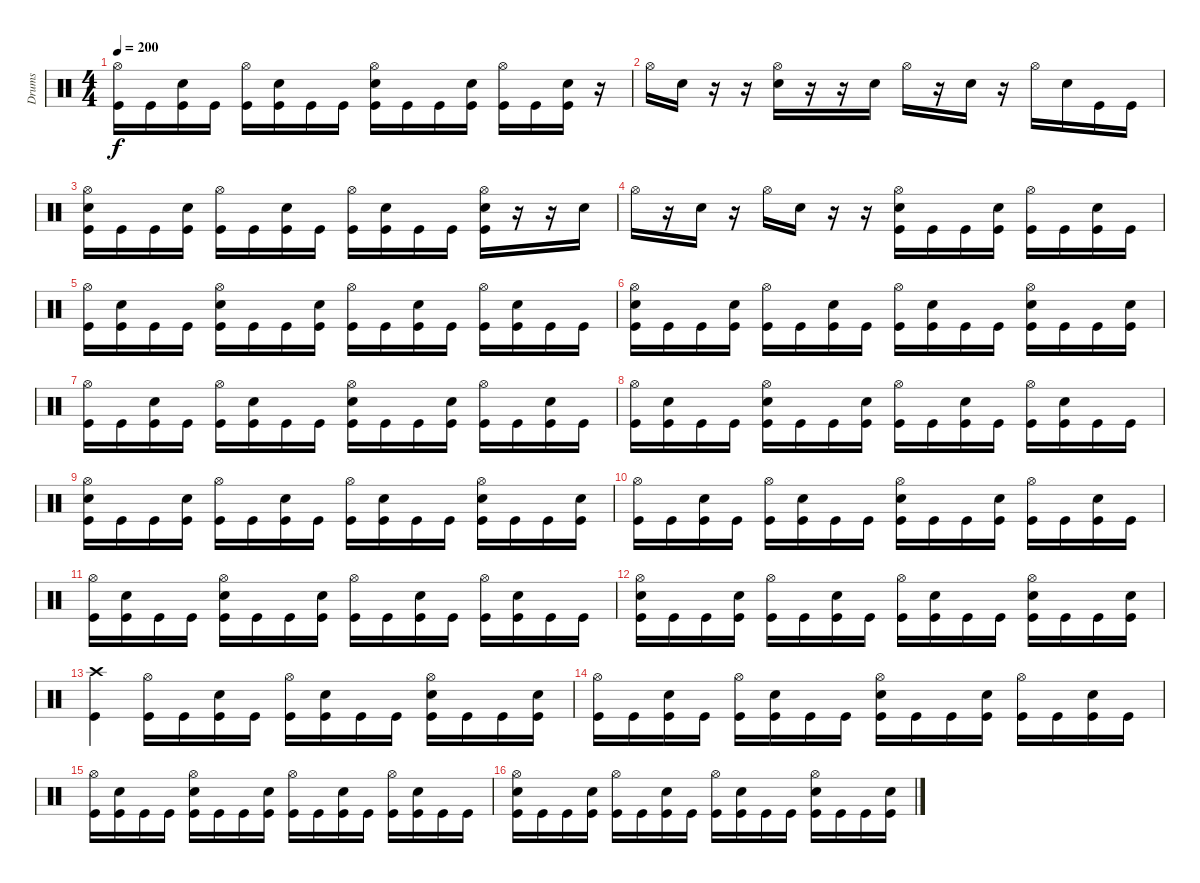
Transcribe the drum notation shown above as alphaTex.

\track ("Drums" "Drums") {instrument percussion}
\staff {score}
\articulation defaults
\ts (4 4)
\tempo 200
\clef neutral
\ks c
("Hi-Hat (open)" "Kick (hit)").16{dy f} "Kick (hit)".16 ("Snare (hit) 2" "Kick (hit)").16 "Kick (hit)".16 ("Hi-Hat (open)" "Kick (hit)").16 ("Snare (hit) 2" "Kick (hit)").16 "Kick (hit)".16 "Kick (hit)".16 ("Hi-Hat (open)" "Snare (hit) 2" "Kick (hit)").16 "Kick (hit)".16 "Kick (hit)".16 ("Snare (hit) 2" "Kick (hit)").16 ("Hi-Hat (open)" "Kick (hit)").16 "Kick (hit)".16 ("Snare (hit) 2" "Kick (hit)").16 r.16 |
"Hi-Hat (open)".16 "Snare (hit) 2".16 r.16 r.16 ("Hi-Hat (open)" "Snare (hit) 2").16 r.16 r.16 "Snare (hit) 2".16 "Hi-Hat (open)".16 r.16 "Snare (hit) 2".16 r.16 "Hi-Hat (open)".16 "Snare (hit) 2".16 "Kick (hit)".16 "Kick (hit)".16 |
("Hi-Hat (open)" "Snare (hit) 2" "Kick (hit)").16 "Kick (hit)".16 "Kick (hit)".16 ("Snare (hit) 2" "Kick (hit)").16 ("Hi-Hat (open)" "Kick (hit)").16 "Kick (hit)".16 ("Snare (hit) 2" "Kick (hit)").16 "Kick (hit)".16 ("Hi-Hat (open)" "Kick (hit)").16 ("Snare (hit) 2" "Kick (hit)").16 "Kick (hit)".16 "Kick (hit)".16 ("Hi-Hat (open)" "Snare (hit) 2" "Kick (hit)").16 r.16 r.16 "Snare (hit) 2".16 |
"Hi-Hat (open)".16 r.16 "Snare (hit) 2".16 r.16 "Hi-Hat (open)".16 "Snare (hit) 2".16 r.16 r.16 ("Hi-Hat (open)" "Snare (hit) 2" "Kick (hit)").16 "Kick (hit)".16 "Kick (hit)".16 ("Snare (hit) 2" "Kick (hit)").16 ("Hi-Hat (open)" "Kick (hit)").16 "Kick (hit)".16 ("Snare (hit) 2" "Kick (hit)").16 "Kick (hit)".16 |
("Hi-Hat (open)" "Kick (hit)").16 ("Snare (hit) 2" "Kick (hit)").16 "Kick (hit)".16 "Kick (hit)".16 ("Hi-Hat (open)" "Snare (hit) 2" "Kick (hit)").16 "Kick (hit)".16 "Kick (hit)".16 ("Snare (hit) 2" "Kick (hit)").16 ("Hi-Hat (open)" "Kick (hit)").16 "Kick (hit)".16 ("Snare (hit) 2" "Kick (hit)").16 "Kick (hit)".16 ("Hi-Hat (open)" "Kick (hit)").16 ("Snare (hit) 2" "Kick (hit)").16 "Kick (hit)".16 "Kick (hit)".16 |
("Hi-Hat (open)" "Snare (hit) 2" "Kick (hit)").16 "Kick (hit)".16 "Kick (hit)".16 ("Snare (hit) 2" "Kick (hit)").16 ("Hi-Hat (open)" "Kick (hit)").16 "Kick (hit)".16 ("Snare (hit) 2" "Kick (hit)").16 "Kick (hit)".16 ("Hi-Hat (open)" "Kick (hit)").16 ("Snare (hit) 2" "Kick (hit)").16 "Kick (hit)".16 "Kick (hit)".16 ("Hi-Hat (open)" "Snare (hit) 2" "Kick (hit)").16 "Kick (hit)".16 "Kick (hit)".16 ("Snare (hit) 2" "Kick (hit)").16 |
("Hi-Hat (open)" "Kick (hit)").16 "Kick (hit)".16 ("Snare (hit) 2" "Kick (hit)").16 "Kick (hit)".16 ("Hi-Hat (open)" "Kick (hit)").16 ("Snare (hit) 2" "Kick (hit)").16 "Kick (hit)".16 "Kick (hit)".16 ("Hi-Hat (open)" "Snare (hit) 2" "Kick (hit)").16 "Kick (hit)".16 "Kick (hit)".16 ("Snare (hit) 2" "Kick (hit)").16 ("Hi-Hat (open)" "Kick (hit)").16 "Kick (hit)".16 ("Snare (hit) 2" "Kick (hit)").16 "Kick (hit)".16 |
("Hi-Hat (open)" "Kick (hit)").16 ("Snare (hit) 2" "Kick (hit)").16 "Kick (hit)".16 "Kick (hit)".16 ("Hi-Hat (open)" "Snare (hit) 2" "Kick (hit)").16 "Kick (hit)".16 "Kick (hit)".16 ("Snare (hit) 2" "Kick (hit)").16 ("Hi-Hat (open)" "Kick (hit)").16 "Kick (hit)".16 ("Snare (hit) 2" "Kick (hit)").16 "Kick (hit)".16 ("Hi-Hat (open)" "Kick (hit)").16 ("Snare (hit) 2" "Kick (hit)").16 "Kick (hit)".16 "Kick (hit)".16 |
("Hi-Hat (open)" "Snare (hit) 2" "Kick (hit)").16 "Kick (hit)".16 "Kick (hit)".16 ("Snare (hit) 2" "Kick (hit)").16 ("Hi-Hat (open)" "Kick (hit)").16 "Kick (hit)".16 ("Snare (hit) 2" "Kick (hit)").16 "Kick (hit)".16 ("Hi-Hat (open)" "Kick (hit)").16 ("Snare (hit) 2" "Kick (hit)").16 "Kick (hit)".16 "Kick (hit)".16 ("Hi-Hat (open)" "Snare (hit) 2" "Kick (hit)").16 "Kick (hit)".16 "Kick (hit)".16 ("Snare (hit) 2" "Kick (hit)").16 |
("Hi-Hat (open)" "Kick (hit)").16 "Kick (hit)".16 ("Snare (hit) 2" "Kick (hit)").16 "Kick (hit)".16 ("Hi-Hat (open)" "Kick (hit)").16 ("Snare (hit) 2" "Kick (hit)").16 "Kick (hit)".16 "Kick (hit)".16 ("Hi-Hat (open)" "Snare (hit) 2" "Kick (hit)").16 "Kick (hit)".16 "Kick (hit)".16 ("Snare (hit) 2" "Kick (hit)").16 ("Hi-Hat (open)" "Kick (hit)").16 "Kick (hit)".16 ("Snare (hit) 2" "Kick (hit)").16 "Kick (hit)".16 |
("Hi-Hat (open)" "Kick (hit)").16 ("Snare (hit) 2" "Kick (hit)").16 "Kick (hit)".16 "Kick (hit)".16 ("Hi-Hat (open)" "Snare (hit) 2" "Kick (hit)").16 "Kick (hit)".16 "Kick (hit)".16 ("Snare (hit) 2" "Kick (hit)").16 ("Hi-Hat (open)" "Kick (hit)").16 "Kick (hit)".16 ("Snare (hit) 2" "Kick (hit)").16 "Kick (hit)".16 ("Hi-Hat (open)" "Kick (hit)").16 ("Snare (hit) 2" "Kick (hit)").16 "Kick (hit)".16 "Kick (hit)".16 |
("Hi-Hat (open)" "Snare (hit) 2" "Kick (hit)").16 "Kick (hit)".16 "Kick (hit)".16 ("Snare (hit) 2" "Kick (hit)").16 ("Hi-Hat (open)" "Kick (hit)").16 "Kick (hit)".16 ("Snare (hit) 2" "Kick (hit)").16 "Kick (hit)".16 ("Hi-Hat (open)" "Kick (hit)").16 ("Snare (hit) 2" "Kick (hit)").16 "Kick (hit)".16 "Kick (hit)".16 ("Hi-Hat (open)" "Snare (hit) 2" "Kick (hit)").16 "Kick (hit)".16 "Kick (hit)".16 ("Snare (hit) 2" "Kick (hit)").16 |
("Crash high (hit)" "Kick (hit)").4 ("Hi-Hat (open)" "Kick (hit)").16 "Kick (hit)".16 ("Snare (hit) 2" "Kick (hit)").16 "Kick (hit)".16 ("Hi-Hat (open)" "Kick (hit)").16 ("Snare (hit) 2" "Kick (hit)").16 "Kick (hit)".16 "Kick (hit)".16 ("Hi-Hat (open)" "Snare (hit) 2" "Kick (hit)").16 "Kick (hit)".16 "Kick (hit)".16 ("Snare (hit) 2" "Kick (hit)").16 |
("Hi-Hat (open)" "Kick (hit)").16 "Kick (hit)".16 ("Snare (hit) 2" "Kick (hit)").16 "Kick (hit)".16 ("Hi-Hat (open)" "Kick (hit)").16 ("Snare (hit) 2" "Kick (hit)").16 "Kick (hit)".16 "Kick (hit)".16 ("Hi-Hat (open)" "Snare (hit) 2" "Kick (hit)").16 "Kick (hit)".16 "Kick (hit)".16 ("Snare (hit) 2" "Kick (hit)").16 ("Hi-Hat (open)" "Kick (hit)").16 "Kick (hit)".16 ("Snare (hit) 2" "Kick (hit)").16 "Kick (hit)".16 |
("Hi-Hat (open)" "Kick (hit)").16 ("Snare (hit) 2" "Kick (hit)").16 "Kick (hit)".16 "Kick (hit)".16 ("Hi-Hat (open)" "Snare (hit) 2" "Kick (hit)").16 "Kick (hit)".16 "Kick (hit)".16 ("Snare (hit) 2" "Kick (hit)").16 ("Hi-Hat (open)" "Kick (hit)").16 "Kick (hit)".16 ("Snare (hit) 2" "Kick (hit)").16 "Kick (hit)".16 ("Hi-Hat (open)" "Kick (hit)").16 ("Snare (hit) 2" "Kick (hit)").16 "Kick (hit)".16 "Kick (hit)".16 |
("Hi-Hat (open)" "Snare (hit) 2" "Kick (hit)").16 "Kick (hit)".16 "Kick (hit)".16 ("Snare (hit) 2" "Kick (hit)").16 ("Hi-Hat (open)" "Kick (hit)").16 "Kick (hit)".16 ("Snare (hit) 2" "Kick (hit)").16 "Kick (hit)".16 ("Hi-Hat (open)" "Kick (hit)").16 ("Snare (hit) 2" "Kick (hit)").16 "Kick (hit)".16 "Kick (hit)".16 ("Hi-Hat (open)" "Snare (hit) 2" "Kick (hit)").16 "Kick (hit)".16 "Kick (hit)".16 ("Snare (hit) 2" "Kick (hit)").16
